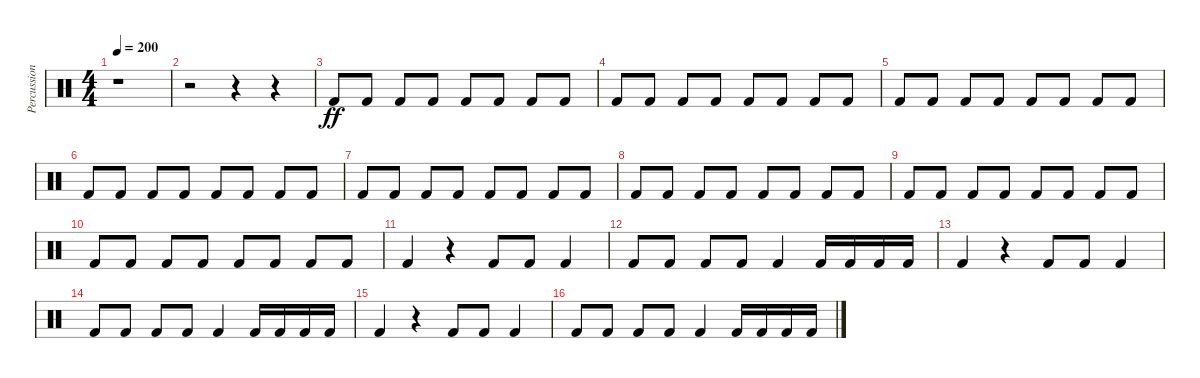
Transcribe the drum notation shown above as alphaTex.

\track ("Percussions 2" "Percussion") {instrument percussion}
\staff {score}
\articulation defaults
\ts (4 4)
\tempo 200
\clef neutral
\ks c
r.1{dy ff} |
r.2 r.4 r.4 |
"Kick (hit) 2".8 "Kick (hit) 2".8 "Kick (hit) 2".8 "Kick (hit) 2".8 "Kick (hit) 2".8 "Kick (hit) 2".8 "Kick (hit) 2".8 "Kick (hit) 2".8 |
"Kick (hit) 2".8 "Kick (hit) 2".8 "Kick (hit) 2".8 "Kick (hit) 2".8 "Kick (hit) 2".8 "Kick (hit) 2".8 "Kick (hit) 2".8 "Kick (hit) 2".8 |
"Kick (hit) 2".8 "Kick (hit) 2".8 "Kick (hit) 2".8 "Kick (hit) 2".8 "Kick (hit) 2".8 "Kick (hit) 2".8 "Kick (hit) 2".8 "Kick (hit) 2".8 |
"Kick (hit) 2".8 "Kick (hit) 2".8 "Kick (hit) 2".8 "Kick (hit) 2".8 "Kick (hit) 2".8 "Kick (hit) 2".8 "Kick (hit) 2".8 "Kick (hit) 2".8 |
"Kick (hit) 2".8 "Kick (hit) 2".8 "Kick (hit) 2".8 "Kick (hit) 2".8 "Kick (hit) 2".8 "Kick (hit) 2".8 "Kick (hit) 2".8 "Kick (hit) 2".8 |
"Kick (hit) 2".8 "Kick (hit) 2".8 "Kick (hit) 2".8 "Kick (hit) 2".8 "Kick (hit) 2".8 "Kick (hit) 2".8 "Kick (hit) 2".8 "Kick (hit) 2".8 |
"Kick (hit) 2".8 "Kick (hit) 2".8 "Kick (hit) 2".8 "Kick (hit) 2".8 "Kick (hit) 2".8 "Kick (hit) 2".8 "Kick (hit) 2".8 "Kick (hit) 2".8 |
"Kick (hit) 2".8 "Kick (hit) 2".8 "Kick (hit) 2".8 "Kick (hit) 2".8 "Kick (hit) 2".8 "Kick (hit) 2".8 "Kick (hit) 2".8 "Kick (hit) 2".8 |
"Kick (hit) 2".4 r.4 "Kick (hit) 2".8 "Kick (hit) 2".8 "Kick (hit) 2".4 |
"Kick (hit) 2".8 "Kick (hit) 2".8 "Kick (hit) 2".8 "Kick (hit) 2".8 "Kick (hit) 2".4 "Kick (hit) 2".16 "Kick (hit) 2".16 "Kick (hit) 2".16 "Kick (hit) 2".16 |
"Kick (hit) 2".4 r.4 "Kick (hit) 2".8 "Kick (hit) 2".8 "Kick (hit) 2".4 |
"Kick (hit) 2".8 "Kick (hit) 2".8 "Kick (hit) 2".8 "Kick (hit) 2".8 "Kick (hit) 2".4 "Kick (hit) 2".16 "Kick (hit) 2".16 "Kick (hit) 2".16 "Kick (hit) 2".16 |
"Kick (hit) 2".4 r.4 "Kick (hit) 2".8 "Kick (hit) 2".8 "Kick (hit) 2".4 |
"Kick (hit) 2".8 "Kick (hit) 2".8 "Kick (hit) 2".8 "Kick (hit) 2".8 "Kick (hit) 2".4 "Kick (hit) 2".16 "Kick (hit) 2".16 "Kick (hit) 2".16 "Kick (hit) 2".16
